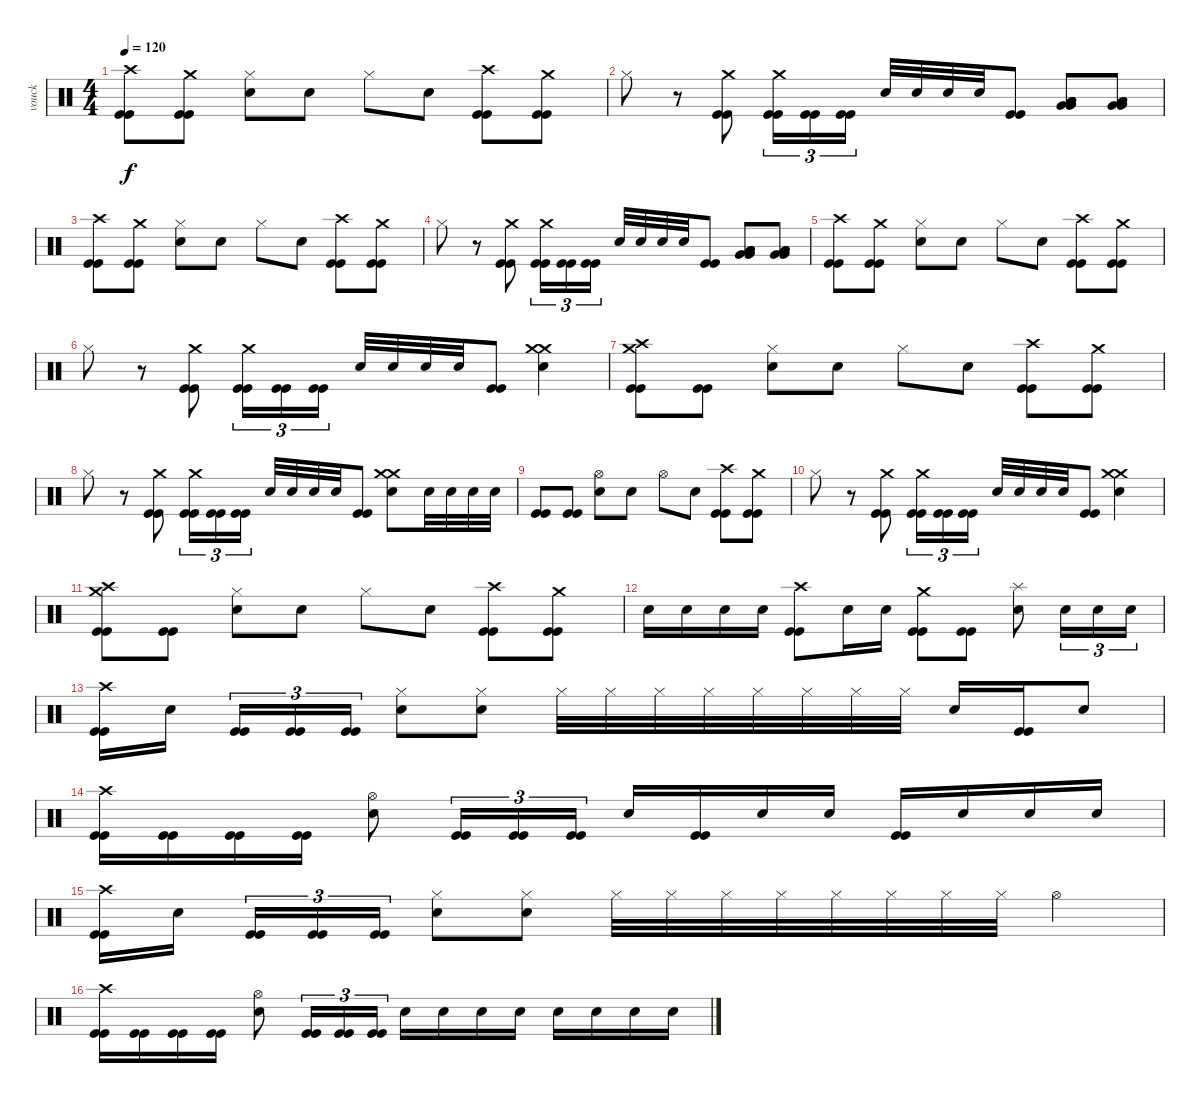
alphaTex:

\track ("vouck" "vouck") {instrument percussion}
\staff {score}
\articulation defaults
\ts (4 4)
\tempo 120
\clef neutral
\ks c
("Crash high (hit)" "Kick (hit)" "Kick (hit)").8{dy f} ("Crash medium (hit)" "Kick (hit)" "Kick (hit)").8 ("Hi-Hat (closed)" "Electric Snare (hit)").8 "Electric Snare (hit)".8 "Hi-Hat (closed)".8 "Electric Snare (hit)".8 ("Crash high (hit)" "Kick (hit)" "Kick (hit)").8 ("Crash medium (hit)" "Kick (hit)" "Kick (hit)").8 |
"Hi-Hat (closed)".8 r.8 ("Crash medium (hit)" "Kick (hit)" "Kick (hit)").8 ("Crash medium (hit)" "Kick (hit)" "Kick (hit)").16{tu (3 2)} ("Kick (hit)" "Kick (hit)").16{tu (3 2)} ("Kick (hit)" "Kick (hit)").16{tu (3 2)} "Electric Snare (hit)".32 "Electric Snare (hit)".32 "Electric Snare (hit)".32 "Electric Snare (hit)".32 ("Kick (hit)" "Kick (hit)").8 ("Low Tom (hit)" "Low Tom (hit)" "Very Low Tom (hit)" "Very Low Tom (hit)").8 ("Low Tom (hit)" "Low Tom (hit)" "Very Low Tom (hit)" "Very Low Tom (hit)").8 |
("Crash high (hit)" "Kick (hit)" "Kick (hit)").8 ("Crash medium (hit)" "Kick (hit)" "Kick (hit)").8 ("Hi-Hat (closed)" "Electric Snare (hit)").8 "Electric Snare (hit)".8 "Hi-Hat (closed)".8 "Electric Snare (hit)".8 ("Crash high (hit)" "Kick (hit)" "Kick (hit)").8 ("Crash medium (hit)" "Kick (hit)" "Kick (hit)").8 |
"Hi-Hat (closed)".8 r.8 ("Crash medium (hit)" "Kick (hit)" "Kick (hit)").8 ("Crash medium (hit)" "Kick (hit)" "Kick (hit)").16{tu (3 2)} ("Kick (hit)" "Kick (hit)").16{tu (3 2)} ("Kick (hit)" "Kick (hit)").16{tu (3 2)} "Electric Snare (hit)".32 "Electric Snare (hit)".32 "Electric Snare (hit)".32 "Electric Snare (hit)".32 ("Kick (hit)" "Kick (hit)").8 ("Low Tom (hit)" "Low Tom (hit)" "Very Low Tom (hit)" "Very Low Tom (hit)").8 ("Low Tom (hit)" "Low Tom (hit)" "Very Low Tom (hit)" "Very Low Tom (hit)").8 |
("Crash high (hit)" "Kick (hit)" "Kick (hit)").8 ("Crash medium (hit)" "Kick (hit)" "Kick (hit)").8 ("Hi-Hat (closed)" "Electric Snare (hit)").8 "Electric Snare (hit)".8 "Hi-Hat (closed)".8 "Electric Snare (hit)".8 ("Crash high (hit)" "Kick (hit)" "Kick (hit)").8 ("Crash medium (hit)" "Kick (hit)" "Kick (hit)").8 |
"Hi-Hat (closed)".8 r.8 ("Crash medium (hit)" "Kick (hit)" "Kick (hit)").8 ("Crash medium (hit)" "Kick (hit)" "Kick (hit)").16{tu (3 2)} ("Kick (hit)" "Kick (hit)").16{tu (3 2)} ("Kick (hit)" "Kick (hit)").16{tu (3 2)} "Electric Snare (hit)".32 "Electric Snare (hit)".32 "Electric Snare (hit)".32 "Electric Snare (hit)".32 ("Kick (hit)" "Kick (hit)").8 ("Crash medium (hit)" "Crash medium (hit)" "Electric Snare (hit)").4 |
("Crash medium (hit)" "Crash high (hit)" "Kick (hit)" "Kick (hit)").8 ("Kick (hit)" "Kick (hit)").8 ("Hi-Hat (closed)" "Electric Snare (hit)").8 "Electric Snare (hit)".8 "Hi-Hat (closed)".8 "Electric Snare (hit)".8 ("Crash high (hit)" "Kick (hit)" "Kick (hit)").8 ("Crash medium (hit)" "Kick (hit)" "Kick (hit)").8 |
"Hi-Hat (closed)".8 r.8 ("Crash medium (hit)" "Kick (hit)" "Kick (hit)").8 ("Crash medium (hit)" "Kick (hit)" "Kick (hit)").16{tu (3 2)} ("Kick (hit)" "Kick (hit)").16{tu (3 2)} ("Kick (hit)" "Kick (hit)").16{tu (3 2)} "Electric Snare (hit)".32 "Electric Snare (hit)".32 "Electric Snare (hit)".32 "Electric Snare (hit)".32 ("Kick (hit)" "Kick (hit)").8 ("Crash medium (hit)" "Crash medium (hit)" "Electric Snare (hit)").8 "Electric Snare (hit)".32 "Electric Snare (hit)".32 "Electric Snare (hit)".32 "Electric Snare (hit)".32 |
("Kick (hit)" "Kick (hit)").8 ("Kick (hit)" "Kick (hit)").8 ("Hi-Hat (open)" "Electric Snare (hit)").8 "Electric Snare (hit)".8 "Hi-Hat (open)".8 "Electric Snare (hit)".8 ("Crash high (hit)" "Kick (hit)" "Kick (hit)").8 ("Crash medium (hit)" "Kick (hit)" "Kick (hit)").8 |
"Hi-Hat (closed)".8 r.8 ("Crash medium (hit)" "Kick (hit)" "Kick (hit)").8 ("Crash medium (hit)" "Kick (hit)" "Kick (hit)").16{tu (3 2)} ("Kick (hit)" "Kick (hit)").16{tu (3 2)} ("Kick (hit)" "Kick (hit)").16{tu (3 2)} "Electric Snare (hit)".32 "Electric Snare (hit)".32 "Electric Snare (hit)".32 "Electric Snare (hit)".32 ("Kick (hit)" "Kick (hit)").8 ("Crash medium (hit)" "Crash medium (hit)" "Electric Snare (hit)").4 |
("Crash medium (hit)" "Crash high (hit)" "Kick (hit)" "Kick (hit)").8 ("Kick (hit)" "Kick (hit)").8 ("Hi-Hat (closed)" "Electric Snare (hit)").8 "Electric Snare (hit)".8 "Hi-Hat (closed)".8 "Electric Snare (hit)".8 ("Crash high (hit)" "Kick (hit)" "Kick (hit)").8 ("Crash medium (hit)" "Kick (hit)" "Kick (hit)").8 |
"Electric Snare (hit)".16 "Electric Snare (hit)".16 "Electric Snare (hit)".16 "Electric Snare (hit)".16 ("Crash high (hit)" "Kick (hit)" "Kick (hit)").8 "Electric Snare (hit)".16 "Electric Snare (hit)".16 ("Crash medium (hit)" "Kick (hit)" "Kick (hit)").8 ("Kick (hit)" "Kick (hit)").8 ("Splash (hit)" "Electric Snare (hit)").8 "Electric Snare (hit)".16{tu (3 2)} "Electric Snare (hit)".16{tu (3 2)} "Electric Snare (hit)".16{tu (3 2)} |
("Crash high (hit)" "Kick (hit)" "Kick (hit)").16 "Electric Snare (hit)".16 ("Kick (hit)" "Kick (hit)").16{tu (3 2)} ("Kick (hit)" "Kick (hit)").16{tu (3 2)} ("Kick (hit)" "Kick (hit)").16{tu (3 2)} ("Hi-Hat (closed)" "Electric Snare (hit)").8 ("Hi-Hat (closed)" "Electric Snare (hit)").8 "Hi-Hat (closed)".32 "Hi-Hat (closed)".32 "Hi-Hat (closed)".32 "Hi-Hat (closed)".32 "Hi-Hat (closed)".32 "Hi-Hat (closed)".32 "Hi-Hat (closed)".32 "Hi-Hat (closed)".32 "Electric Snare (hit)".16 ("Kick (hit)" "Kick (hit)").16 "Electric Snare (hit)".8 |
("Crash high (hit)" "Kick (hit)" "Kick (hit)").16 ("Kick (hit)" "Kick (hit)").16 ("Kick (hit)" "Kick (hit)").16 ("Kick (hit)" "Kick (hit)").16 ("Hi-Hat (open)" "Electric Snare (hit)").8 ("Kick (hit)" "Kick (hit)").16{tu (3 2)} ("Kick (hit)" "Kick (hit)").16{tu (3 2)} ("Kick (hit)" "Kick (hit)").16{tu (3 2)} "Electric Snare (hit)".16 ("Kick (hit)" "Kick (hit)").16 "Electric Snare (hit)".16 "Electric Snare (hit)".16 ("Kick (hit)" "Kick (hit)").16 "Electric Snare (hit)".16 "Electric Snare (hit)".16 "Electric Snare (hit)".16 |
("Crash high (hit)" "Kick (hit)" "Kick (hit)").16 "Electric Snare (hit)".16 ("Kick (hit)" "Kick (hit)").16{tu (3 2)} ("Kick (hit)" "Kick (hit)").16{tu (3 2)} ("Kick (hit)" "Kick (hit)").16{tu (3 2)} ("Hi-Hat (closed)" "Electric Snare (hit)").8 ("Hi-Hat (closed)" "Electric Snare (hit)").8 "Hi-Hat (closed)".32 "Hi-Hat (closed)".32 "Hi-Hat (closed)".32 "Hi-Hat (closed)".32 "Hi-Hat (closed)".32 "Hi-Hat (closed)".32 "Hi-Hat (closed)".32 "Hi-Hat (closed)".32 "Hi-Hat (open)".4 |
("Crash high (hit)" "Kick (hit)" "Kick (hit)").16 ("Kick (hit)" "Kick (hit)").16 ("Kick (hit)" "Kick (hit)").16 ("Kick (hit)" "Kick (hit)").16 ("Hi-Hat (open)" "Electric Snare (hit)").8 ("Kick (hit)" "Kick (hit)").16{tu (3 2)} ("Kick (hit)" "Kick (hit)").16{tu (3 2)} ("Kick (hit)" "Kick (hit)").16{tu (3 2)} "Electric Snare (hit)".16 "Electric Snare (hit)".16 "Electric Snare (hit)".16 "Electric Snare (hit)".16 "Electric Snare (hit)".16 "Electric Snare (hit)".16 "Electric Snare (hit)".16 "Electric Snare (hit)".16
